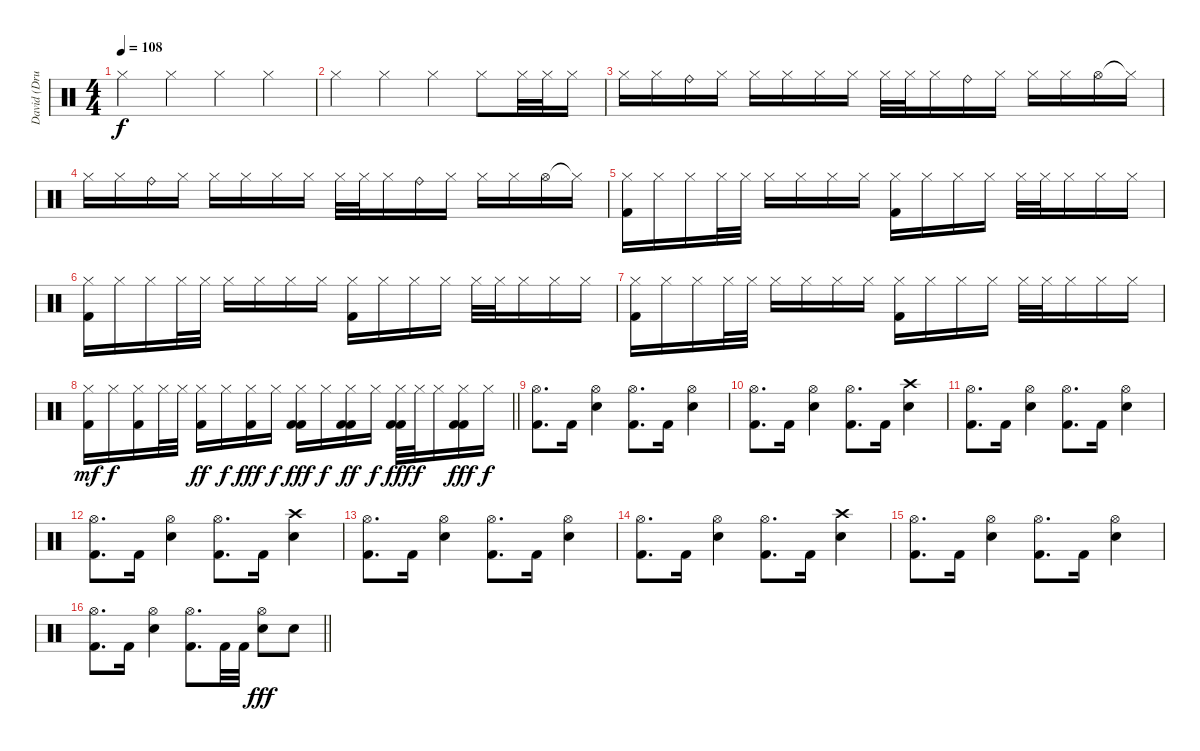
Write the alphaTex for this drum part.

\track ("David (Drum)" "David (Dru") {instrument percussion}
\staff {score}
\articulation defaults
\ts (4 4)
\section ("" "")
\tempo 108
\clef neutral
\ks c "Hi-Hat (closed)".4{dy f} "Hi-Hat (closed)".4 "Hi-Hat (closed)".4 "Hi-Hat (closed)".4
|
"Hi-Hat (closed)".4 "Hi-Hat (closed)".4 "Hi-Hat (closed)".4 "Hi-Hat (closed)".8 "Hi-Hat (closed)".32 "Hi-Hat (closed)".32 "Hi-Hat (closed)".16 |
"Hi-Hat (closed)".16 "Hi-Hat (closed)".16 "Ride (bell)".16 "Hi-Hat (closed)".16 "Hi-Hat (closed)".16 "Hi-Hat (closed)".16 "Hi-Hat (closed)".16 "Hi-Hat (closed)".16 "Hi-Hat (closed)".32 "Hi-Hat (closed)".32 "Hi-Hat (closed)".16 "Ride (bell)".16 "Hi-Hat (closed)".16 "Hi-Hat (closed)".16 "Hi-Hat (closed)".16 "Hi-Hat (open)".16 "Hi-Hat (closed)"{t}.16 |
"Hi-Hat (closed)".16 "Hi-Hat (closed)".16 "Ride (bell)".16 "Hi-Hat (closed)".16 "Hi-Hat (closed)".16 "Hi-Hat (closed)".16 "Hi-Hat (closed)".16 "Hi-Hat (closed)".16 "Hi-Hat (closed)".32 "Hi-Hat (closed)".32 "Hi-Hat (closed)".16 "Ride (bell)".16 "Hi-Hat (closed)".16 "Hi-Hat (closed)".16 "Hi-Hat (closed)".16 "Hi-Hat (open)".16 "Hi-Hat (closed)"{t}.16 |
("Hi-Hat (closed)" "Kick (hit) 2").16 "Hi-Hat (closed)".16 "Hi-Hat (closed)".16 "Hi-Hat (closed)".32 "Hi-Hat (closed)".32 "Hi-Hat (closed)".16 "Hi-Hat (closed)".16 "Hi-Hat (closed)".16 "Hi-Hat (closed)".16 ("Hi-Hat (closed)" "Kick (hit) 2").16 "Hi-Hat (closed)".16 "Hi-Hat (closed)".16 "Hi-Hat (closed)".16 "Hi-Hat (closed)".32 "Hi-Hat (closed)".32 "Hi-Hat (closed)".16 "Hi-Hat (closed)".16 "Hi-Hat (closed)".16 |
("Hi-Hat (closed)" "Kick (hit) 2").16 "Hi-Hat (closed)".16 "Hi-Hat (closed)".16 "Hi-Hat (closed)".32 "Hi-Hat (closed)".32 "Hi-Hat (closed)".16 "Hi-Hat (closed)".16 "Hi-Hat (closed)".16 "Hi-Hat (closed)".16 ("Hi-Hat (closed)" "Kick (hit) 2").16 "Hi-Hat (closed)".16 "Hi-Hat (closed)".16 "Hi-Hat (closed)".16 "Hi-Hat (closed)".32 "Hi-Hat (closed)".32 "Hi-Hat (closed)".16 "Hi-Hat (closed)".16 "Hi-Hat (closed)".16 |
("Hi-Hat (closed)" "Kick (hit) 2").16 "Hi-Hat (closed)".16 "Hi-Hat (closed)".16 "Hi-Hat (closed)".32 "Hi-Hat (closed)".32 "Hi-Hat (closed)".16 "Hi-Hat (closed)".16 "Hi-Hat (closed)".16 "Hi-Hat (closed)".16 ("Hi-Hat (closed)" "Kick (hit) 2").16 "Hi-Hat (closed)".16 "Hi-Hat (closed)".16 "Hi-Hat (closed)".16 "Hi-Hat (closed)".32 "Hi-Hat (closed)".32 "Hi-Hat (closed)".16 "Hi-Hat (closed)".16 "Hi-Hat (closed)".16 |
\barLineRight lightlight
("Hi-Hat (closed)" "Kick (hit) 2").16{dy mf} "Hi-Hat (closed)".16{dy f} ("Hi-Hat (closed)" "Kick (hit) 2").16 "Hi-Hat (closed)".32 "Hi-Hat (closed)".32 ("Hi-Hat (closed)" "Kick (hit) 2").16{dy ff} "Hi-Hat (closed)".16{dy f} ("Hi-Hat (closed)" "Kick (hit) 2").16{dy fff} "Hi-Hat (closed)".16{dy f} ("Hi-Hat (closed)" "Kick (hit) 2" "Kick (hit) 2").16{dy fff} "Hi-Hat (closed)".16{dy f} ("Hi-Hat (closed)" "Kick (hit) 2" "Kick (hit) 2").16{dy ff} "Hi-Hat (closed)".16{dy f} ("Hi-Hat (closed)" "Kick (hit) 2" "Kick (hit) 2").32{dy fff} "Hi-Hat (closed)".32{dy f} "Hi-Hat (closed)".16 ("Hi-Hat (closed)" "Kick (hit) 2" "Kick (hit) 2").16{dy fff} "Hi-Hat (closed)".16{dy f} |
\section ("" "")
("Hi-Hat (open)" "Kick (hit) 2").8{d} "Kick (hit) 2".16 ("Hi-Hat (open)" "Electric Snare (hit)").4 ("Hi-Hat (open)" "Kick (hit) 2").8{d} "Kick (hit) 2".16 ("Hi-Hat (open)" "Electric Snare (hit)").4 |
("Hi-Hat (open)" "Kick (hit) 2").8{d} "Kick (hit) 2".16 ("Hi-Hat (open)" "Electric Snare (hit)").4 ("Hi-Hat (open)" "Kick (hit) 2").8{d} "Kick (hit) 2".16 ("Crash high (hit)" "Electric Snare (hit)").4 |
("Hi-Hat (open)" "Kick (hit) 2").8{d} "Kick (hit) 2".16 ("Hi-Hat (open)" "Electric Snare (hit)").4 ("Hi-Hat (open)" "Kick (hit) 2").8{d} "Kick (hit) 2".16 ("Hi-Hat (open)" "Electric Snare (hit)").4 |
("Hi-Hat (open)" "Kick (hit) 2").8{d} "Kick (hit) 2".16 ("Hi-Hat (open)" "Electric Snare (hit)").4 ("Hi-Hat (open)" "Kick (hit) 2").8{d} "Kick (hit) 2".16 ("Crash high (hit)" "Electric Snare (hit)").4 |
("Hi-Hat (open)" "Kick (hit) 2").8{d} "Kick (hit) 2".16 ("Hi-Hat (open)" "Electric Snare (hit)").4 ("Hi-Hat (open)" "Kick (hit) 2").8{d} "Kick (hit) 2".16 ("Hi-Hat (open)" "Electric Snare (hit)").4 |
("Hi-Hat (open)" "Kick (hit) 2").8{d} "Kick (hit) 2".16 ("Hi-Hat (open)" "Electric Snare (hit)").4 ("Hi-Hat (open)" "Kick (hit) 2").8{d} "Kick (hit) 2".16 ("Crash high (hit)" "Electric Snare (hit)").4 |
("Hi-Hat (open)" "Kick (hit) 2").8{d} "Kick (hit) 2".16 ("Hi-Hat (open)" "Electric Snare (hit)").4 ("Hi-Hat (open)" "Kick (hit) 2").8{d} "Kick (hit) 2".16 ("Hi-Hat (open)" "Electric Snare (hit)").4 |
\barLineRight lightlight
("Hi-Hat (open)" "Kick (hit) 2").8{d} "Kick (hit) 2".16 ("Hi-Hat (open)" "Electric Snare (hit)").4 ("Hi-Hat (open)" "Kick (hit) 2").8{d} "Kick (hit) 2".32 "Kick (hit) 2".32 ("Hi-Hat (open)" "Electric Snare (hit)").8{dy fff} "Electric Snare (hit)".8
